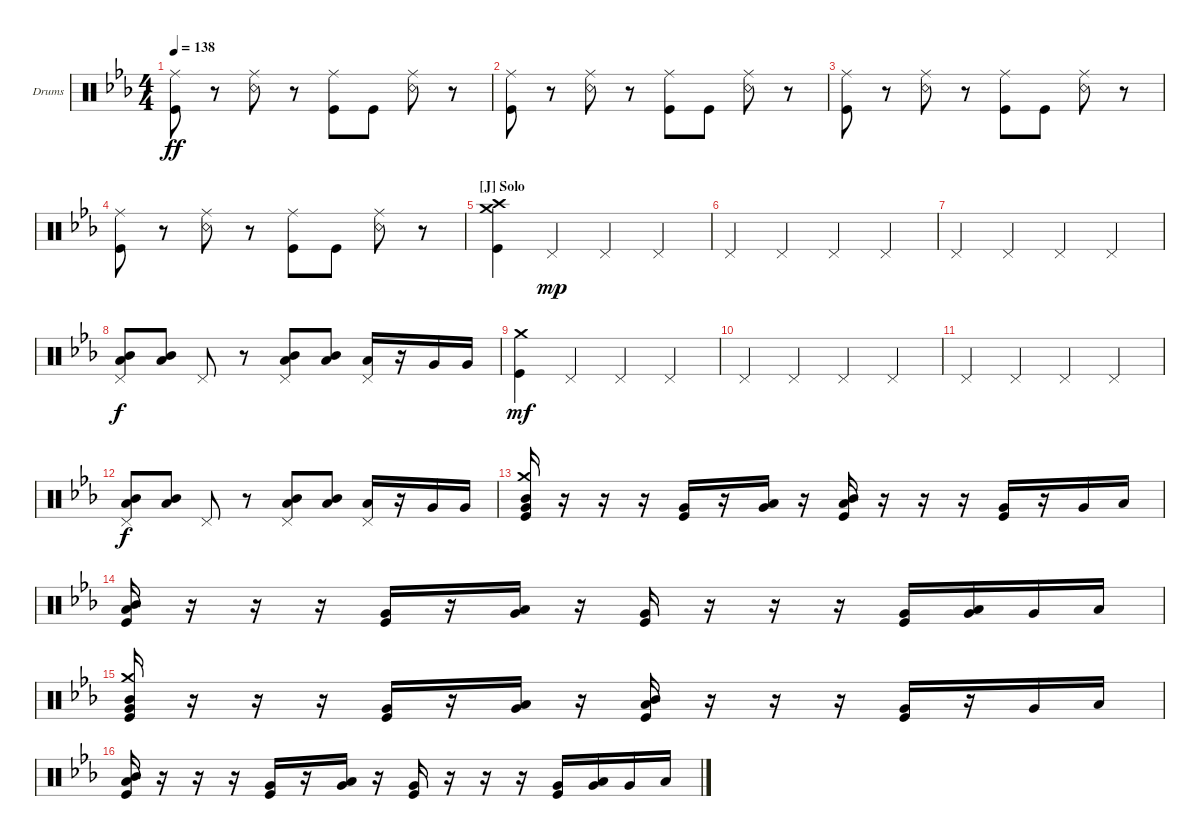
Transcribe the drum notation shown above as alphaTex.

\defaultSystemsLayout 4
\bracketExtendMode groupsimilarinstruments
\firstSystemTrackNameOrientation horizontal
\otherSystemsTrackNameOrientation horizontal
\track ("Drums" "Drums") {instrument percussion}
\staff {score}
\articulation defaults
\ts (4 4)
\tempo 138
\clef neutral
\ks eb
("Kick (hit)" "Ride (middle)").8{dy ff} r.8 ("Ride (middle)" "Snare (rim shot)").8 r.8 ("Ride (middle)" "Kick (hit)").8 "Kick (hit)".8 ("Ride (middle)" "Snare (rim shot)").8 r.8 |
("Kick (hit)" "Ride (middle)").8 r.8 ("Ride (middle)" "Snare (rim shot)").8 r.8 ("Ride (middle)" "Kick (hit)").8 "Kick (hit)".8 ("Ride (middle)" "Snare (rim shot)").8 r.8 |
("Kick (hit)" "Ride (middle)").8 r.8 ("Ride (middle)" "Snare (rim shot)").8 r.8 ("Ride (middle)" "Kick (hit)").8 "Kick (hit)".8 ("Ride (middle)" "Snare (rim shot)").8 r.8 |
("Kick (hit)" "Ride (middle)").8 r.8 ("Ride (middle)" "Snare (rim shot)").8 r.8 ("Ride (middle)" "Kick (hit)").8 "Kick (hit)".8 ("Ride (middle)" "Snare (rim shot)").8 r.8 |
\section ("J" "Solo")
("Kick (hit)" "Crash medium (hit)" "Crash high (hit)").4 "Pedal Hi-Hat (hit)".4{dy mp} "Pedal Hi-Hat (hit)".4 "Pedal Hi-Hat (hit)".4 |
"Pedal Hi-Hat (hit)".4 "Pedal Hi-Hat (hit)".4 "Pedal Hi-Hat (hit)".4 "Pedal Hi-Hat (hit)".4 |
"Pedal Hi-Hat (hit)".4 "Pedal Hi-Hat (hit)".4 "Pedal Hi-Hat (hit)".4 "Pedal Hi-Hat (hit)".4 |
("Mid Tom (hit)" "Low Tom (hit)" "Pedal Hi-Hat (hit)").8{dy f} ("Mid Tom (hit)" "Low Tom (hit)").8 "Pedal Hi-Hat (hit)".8 r.8 ("Low Tom (hit)" "Mid Tom (hit)" "Pedal Hi-Hat (hit)").8 ("Low Tom (hit)" "Mid Tom (hit)").8 ("Pedal Hi-Hat (hit)" "Low Tom (hit)").16 r.16 "Very Low Tom (hit)".16 "Very Low Tom (hit)".16 |
("Kick (hit)" "Crash medium (hit)").4{dy mf} "Pedal Hi-Hat (hit)".4 "Pedal Hi-Hat (hit)".4 "Pedal Hi-Hat (hit)".4 |
"Pedal Hi-Hat (hit)".4 "Pedal Hi-Hat (hit)".4 "Pedal Hi-Hat (hit)".4 "Pedal Hi-Hat (hit)".4 |
"Pedal Hi-Hat (hit)".4 "Pedal Hi-Hat (hit)".4 "Pedal Hi-Hat (hit)".4 "Pedal Hi-Hat (hit)".4 |
("Mid Tom (hit)" "Low Tom (hit)" "Pedal Hi-Hat (hit)").8{dy f} ("Mid Tom (hit)" "Low Tom (hit)").8 "Pedal Hi-Hat (hit)".8 r.8 ("Low Tom (hit)" "Mid Tom (hit)" "Pedal Hi-Hat (hit)").8 ("Low Tom (hit)" "Mid Tom (hit)").8 ("Pedal Hi-Hat (hit)" "Low Tom (hit)").16 r.16 "Very Low Tom (hit)".16 "Very Low Tom (hit)".16 |
("Kick (hit)" "Crash medium (hit)" "Mid Tom (hit)" "Very Low Tom (hit)").16 r.16 r.16 r.16 ("Kick (hit)" "Very Low Tom (hit)").16 r.16 ("Very Low Tom (hit)" "Low Tom (hit)").16 r.16 ("Kick (hit)" "Mid Tom (hit)" "Low Tom (hit)").16 r.16 r.16 r.16 ("Kick (hit)" "Very Low Tom (hit)").16 r.16 "Very Low Tom (hit)".16 "Low Tom (hit)".16 |
("Kick (hit)" "Mid Tom (hit)" "Low Tom (hit)").16 r.16 r.16 r.16 ("Kick (hit)" "Very Low Tom (hit)").16 r.16 ("Low Tom (hit)" "Very Low Tom (hit)").16 r.16 ("Kick (hit)" "Very Low Tom (hit)").16 r.16 r.16 r.16 ("Kick (hit)" "Very Low Tom (hit)").16 ("Very Low Tom (hit)" "Low Tom (hit)").16 "Very Low Tom (hit)".16 "Low Tom (hit)".16 |
("Kick (hit)" "Crash medium (hit)" "Mid Tom (hit)" "Very Low Tom (hit)").16 r.16 r.16 r.16 ("Kick (hit)" "Very Low Tom (hit)").16 r.16 ("Very Low Tom (hit)" "Low Tom (hit)").16 r.16 ("Kick (hit)" "Mid Tom (hit)" "Low Tom (hit)").16 r.16 r.16 r.16 ("Kick (hit)" "Very Low Tom (hit)").16 r.16 "Very Low Tom (hit)".16 "Low Tom (hit)".16 |
("Kick (hit)" "Mid Tom (hit)" "Low Tom (hit)").16 r.16 r.16 r.16 ("Kick (hit)" "Very Low Tom (hit)").16 r.16 ("Low Tom (hit)" "Very Low Tom (hit)").16 r.16 ("Kick (hit)" "Very Low Tom (hit)").16 r.16 r.16 r.16 ("Kick (hit)" "Very Low Tom (hit)").16 ("Very Low Tom (hit)" "Low Tom (hit)").16 "Very Low Tom (hit)".16 "Low Tom (hit)".16
